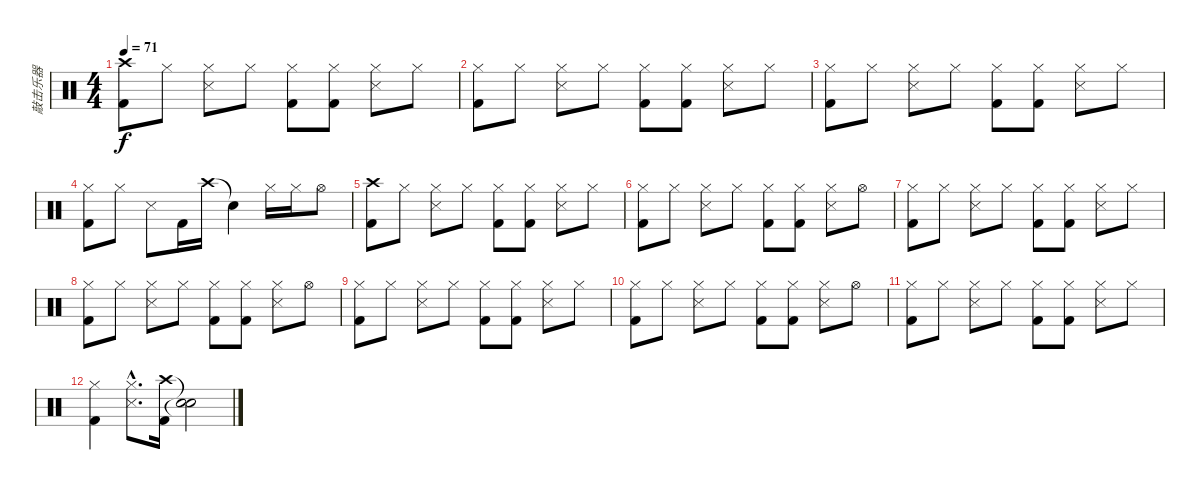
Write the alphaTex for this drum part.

\track ("敲击乐器" "敲击乐器") {instrument percussion}
\staff {score}
\articulation defaults
\ts (4 4)
\tempo 71
\clef neutral
\ks c
("Crash high (hit)" "Kick (hit) 2").8{dy f} "Hi-Hat (closed)".8 ("Hi-Hat (closed)" "Snare (side stick) 3").8 "Hi-Hat (closed)".8 ("Hi-Hat (closed)" "Kick (hit) 2").8 ("Hi-Hat (closed)" "Kick (hit) 2").8 ("Hi-Hat (closed)" "Snare (side stick) 3").8 "Hi-Hat (closed)".8 |
("Hi-Hat (closed)" "Kick (hit) 2").8 "Hi-Hat (closed)".8 ("Hi-Hat (closed)" "Snare (side stick) 3").8 "Hi-Hat (closed)".8 ("Hi-Hat (closed)" "Kick (hit) 2").8 ("Hi-Hat (closed)" "Kick (hit) 2").8 ("Hi-Hat (closed)" "Snare (side stick) 3").8 "Hi-Hat (closed)".8 |
("Hi-Hat (closed)" "Kick (hit) 2").8 "Hi-Hat (closed)".8 ("Hi-Hat (closed)" "Snare (side stick) 3").8 "Hi-Hat (closed)".8 ("Hi-Hat (closed)" "Kick (hit) 2").8 ("Hi-Hat (closed)" "Kick (hit) 2").8 ("Hi-Hat (closed)" "Snare (side stick) 3").8 "Hi-Hat (closed)".8 |
("Hi-Hat (closed)" "Kick (hit) 2").8 "Hi-Hat (closed)".8 "Snare (side stick) 3".8 "Kick (hit) 2".16 "Crash high (hit)".16 "Snare (hit)"{t}.4 "Hi-Hat (closed)".16 "Hi-Hat (closed)".16 "Hi-Hat (open)".8 |
("Crash high (hit)" "Kick (hit) 2").8 "Hi-Hat (closed)".8 ("Hi-Hat (closed)" "Snare (side stick) 3").8 "Hi-Hat (closed)".8 ("Hi-Hat (closed)" "Kick (hit) 2").8 ("Hi-Hat (closed)" "Kick (hit) 2").8 ("Hi-Hat (closed)" "Snare (side stick) 3").8 "Hi-Hat (closed)".8 |
("Hi-Hat (closed)" "Kick (hit) 2").8 "Hi-Hat (closed)".8 ("Hi-Hat (closed)" "Snare (side stick) 3").8 "Hi-Hat (closed)".8 ("Hi-Hat (closed)" "Kick (hit) 2").8 ("Hi-Hat (closed)" "Kick (hit) 2").8 ("Hi-Hat (closed)" "Snare (side stick) 3").8 "Hi-Hat (open)".8 |
("Hi-Hat (closed)" "Kick (hit) 2").8 "Hi-Hat (closed)".8 ("Hi-Hat (closed)" "Snare (side stick) 3").8 "Hi-Hat (closed)".8 ("Hi-Hat (closed)" "Kick (hit) 2").8 ("Hi-Hat (closed)" "Kick (hit) 2").8 ("Hi-Hat (closed)" "Snare (side stick) 3").8 "Hi-Hat (closed)".8 |
("Hi-Hat (closed)" "Kick (hit) 2").8 "Hi-Hat (closed)".8 ("Hi-Hat (closed)" "Snare (side stick) 3").8 "Hi-Hat (closed)".8 ("Hi-Hat (closed)" "Kick (hit) 2").8 ("Hi-Hat (closed)" "Kick (hit) 2").8 ("Hi-Hat (closed)" "Snare (side stick) 3").8 "Hi-Hat (open)".8 |
("Hi-Hat (closed)" "Kick (hit) 2").8 "Hi-Hat (closed)".8 ("Hi-Hat (closed)" "Snare (side stick) 3").8 "Hi-Hat (closed)".8 ("Hi-Hat (closed)" "Kick (hit) 2").8 ("Hi-Hat (closed)" "Kick (hit) 2").8 ("Hi-Hat (closed)" "Snare (side stick) 3").8 "Hi-Hat (closed)".8 |
("Hi-Hat (closed)" "Kick (hit) 2").8 "Hi-Hat (closed)".8 ("Hi-Hat (closed)" "Snare (side stick) 3").8 "Hi-Hat (closed)".8 ("Hi-Hat (closed)" "Kick (hit) 2").8 ("Hi-Hat (closed)" "Kick (hit) 2").8 ("Hi-Hat (closed)" "Snare (side stick) 3").8 "Hi-Hat (open)".8 |
("Hi-Hat (closed)" "Kick (hit) 2").8 "Hi-Hat (closed)".8 ("Hi-Hat (closed)" "Snare (side stick) 3").8 "Hi-Hat (closed)".8 ("Hi-Hat (closed)" "Kick (hit) 2").8 ("Hi-Hat (closed)" "Kick (hit) 2").8 ("Hi-Hat (closed)" "Snare (side stick) 3").8 "Hi-Hat (closed)".8 |
("Hi-Hat (closed)" "Kick (hit) 2").4 ("Hi-Hat (closed)"{hac} "Snare (side stick) 3"{hac}).8{d} ("Crash high (hit)" "Kick (hit) 2").16 ("Snare (hit)"{t} "Snare (hit)"{t}).2
